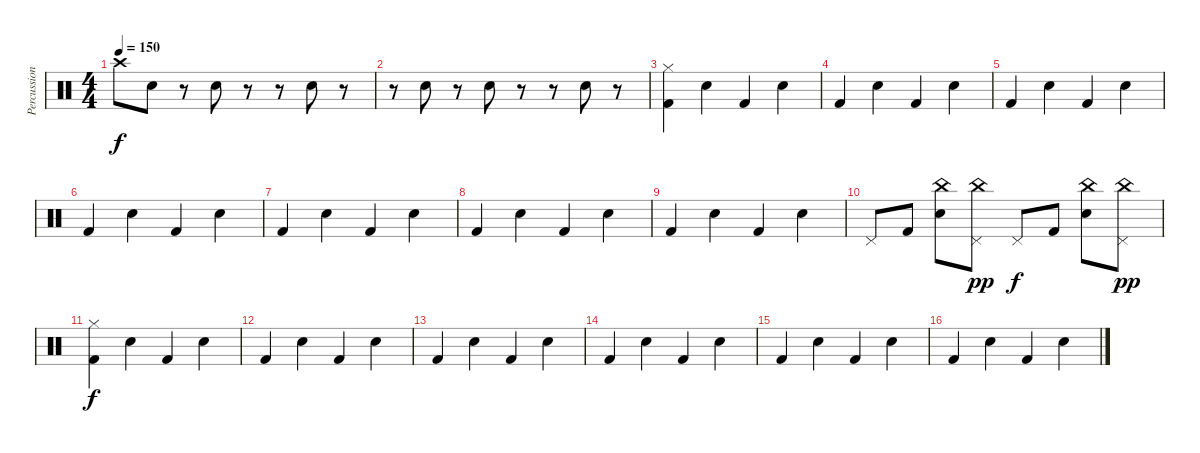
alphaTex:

\track ("Percussion" "Percussion") {instrument percussion}
\staff {score}
\articulation defaults
\ts (4 4)
\tempo 150
\clef neutral
\ks c "Crash high (hit)".8{dy f} "Electric Snare (hit)".8
r.8 "Electric Snare (hit)".8 r.8 r.8 "Electric Snare (hit)".8 r.8 |
r.8 "Electric Snare (hit)".8 r.8 "Electric Snare (hit)".8 r.8 r.8 "Electric Snare (hit)".8 r.8 |
("Hi-Hat (closed)" "Kick (hit) 2").4 "Electric Snare (hit)".4 "Kick (hit) 2".4 "Electric Snare (hit)".4 |
"Kick (hit) 2".4 "Electric Snare (hit)".4 "Kick (hit) 2".4 "Electric Snare (hit)".4 |
"Kick (hit) 2".4 "Electric Snare (hit)".4 "Kick (hit) 2".4 "Electric Snare (hit)".4 |
"Kick (hit) 2".4 "Electric Snare (hit)".4 "Kick (hit) 2".4 "Electric Snare (hit)".4 |
"Kick (hit) 2".4 "Electric Snare (hit)".4 "Kick (hit) 2".4 "Electric Snare (hit)".4 |
"Kick (hit) 2".4 "Electric Snare (hit)".4 "Kick (hit) 2".4 "Electric Snare (hit)".4 |
"Kick (hit) 2".4 "Electric Snare (hit)".4 "Kick (hit) 2".4 "Electric Snare (hit)".4 |
"Pedal Hi-Hat (hit)".8 "Kick (hit) 2".8 ("China (hit)" "Electric Snare (hit)").8 ("Pedal Hi-Hat (hit)" "China (hit)").8{dy pp} "Pedal Hi-Hat (hit)".8{dy f} "Kick (hit) 2".8 ("China (hit)" "Electric Snare (hit)").8 ("Pedal Hi-Hat (hit)" "China (hit)").8{dy pp} |
("Hi-Hat (closed)" "Kick (hit) 2").4{dy f} "Electric Snare (hit)".4 "Kick (hit) 2".4 "Electric Snare (hit)".4 |
"Kick (hit) 2".4 "Electric Snare (hit)".4 "Kick (hit) 2".4 "Electric Snare (hit)".4 |
"Kick (hit) 2".4 "Electric Snare (hit)".4 "Kick (hit) 2".4 "Electric Snare (hit)".4 |
"Kick (hit) 2".4 "Electric Snare (hit)".4 "Kick (hit) 2".4 "Electric Snare (hit)".4 |
"Kick (hit) 2".4 "Electric Snare (hit)".4 "Kick (hit) 2".4 "Electric Snare (hit)".4 |
"Kick (hit) 2".4 "Electric Snare (hit)".4 "Kick (hit) 2".4 "Electric Snare (hit)".4
